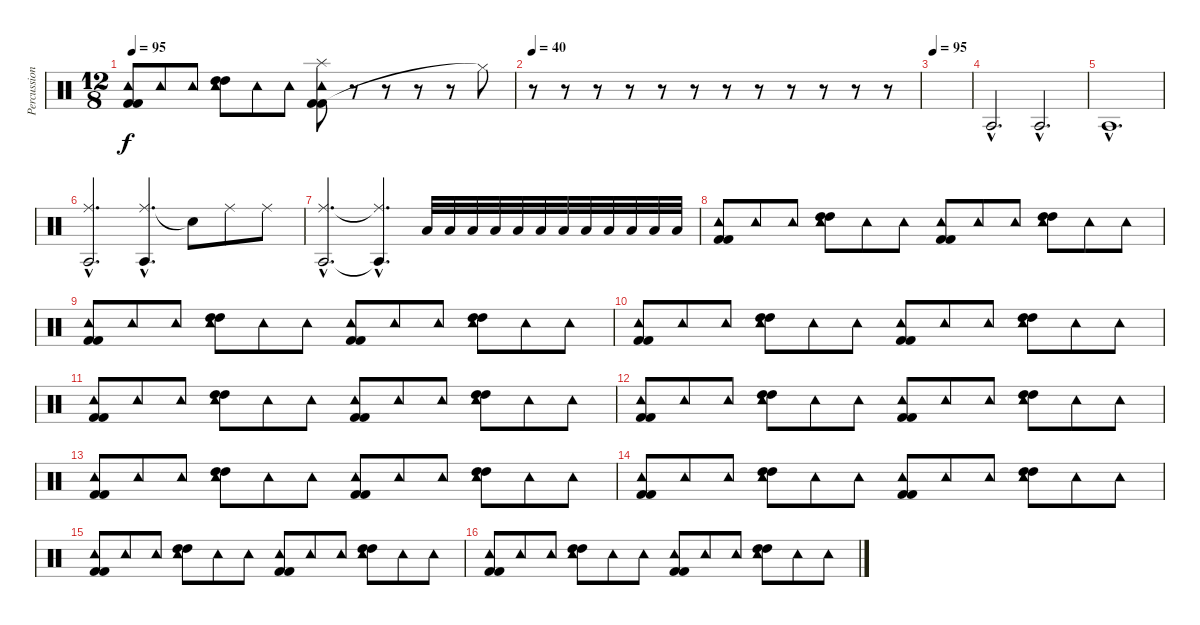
\track ("Percussion" "Percussion") {instrument percussion}
\staff {score}
\articulation defaults
\ts (12 8)
\tempo 95
\clef neutral
\ks c
("Kick (hit) 2" "Kick (hit) 2" "Tambourine (hit)").8{dy f} "Tambourine (hit)".8 "Tambourine (hit)".8 ("High Tom (hit)" "High Tom (hit)" "Tambourine (hit)").8 "Tambourine (hit)".8 "Tambourine (hit)".8 ("Kick (hit) 2" "Kick (hit) 2" "Splash (hit)" "Tambourine (hit)").8 r.8 r.8 r.8 r.8 "Hi-Hat (closed)"{t}.8 |
\tempo 40
r.8 r.8 r.8 r.8 r.8 r.8 r.8 r.8 r.8 r.8 r.8 r.8 |
\tempo 95
|
"Agogo tow (hit)"{hac}.2{d} "Agogo tow (hit)"{hac}.2{d} |
"Agogo tow (hit)"{hac}.1{d} |
("Ride (middle)"{hac} "Agogo tow (hit)"{hac}).2{d} ("Ride (middle)"{hac} "Agogo tow (hit)"{hac}).4{d} "Snare (hit)"{t}.8 "Ride (middle)".8 "Ride (middle)".8 |
("Ride (middle)"{hac} "Agogo tow (hit)"{hac}).2{d} ("Ride (middle)"{hac t} "Agogo tow (hit)"{hac t}).4{d volume 2} "Low Floor Tom (hit)".32{volume 16} "Low Floor Tom (hit)".32 "Low Floor Tom (hit)".32 "Low Floor Tom (hit)".32 "Low Floor Tom (hit)".32 "Low Floor Tom (hit)".32 "Low Floor Tom (hit)".32 "Low Floor Tom (hit)".32 "Low Floor Tom (hit)".32 "Low Floor Tom (hit)".32 "Low Floor Tom (hit)".32 "Low Floor Tom (hit)".32 |
("Kick (hit) 2" "Kick (hit) 2" "Tambourine (hit)").8 "Tambourine (hit)".8 "Tambourine (hit)".8 ("High Tom (hit)" "High Tom (hit)" "Tambourine (hit)").8 "Tambourine (hit)".8 "Tambourine (hit)".8 ("Kick (hit) 2" "Kick (hit) 2" "Tambourine (hit)").8 "Tambourine (hit)".8 "Tambourine (hit)".8 ("High Tom (hit)" "High Tom (hit)" "Tambourine (hit)").8 "Tambourine (hit)".8 "Tambourine (hit)".8 |
("Kick (hit) 2" "Kick (hit) 2" "Tambourine (hit)").8 "Tambourine (hit)".8 "Tambourine (hit)".8 ("High Tom (hit)" "High Tom (hit)" "Tambourine (hit)").8 "Tambourine (hit)".8 "Tambourine (hit)".8 ("Kick (hit) 2" "Kick (hit) 2" "Tambourine (hit)").8 "Tambourine (hit)".8 "Tambourine (hit)".8 ("High Tom (hit)" "High Tom (hit)" "Tambourine (hit)").8 "Tambourine (hit)".8 "Tambourine (hit)".8 |
("Kick (hit) 2" "Kick (hit) 2" "Tambourine (hit)").8 "Tambourine (hit)".8 "Tambourine (hit)".8 ("High Tom (hit)" "High Tom (hit)" "Tambourine (hit)").8 "Tambourine (hit)".8 "Tambourine (hit)".8 ("Kick (hit) 2" "Kick (hit) 2" "Tambourine (hit)").8 "Tambourine (hit)".8 "Tambourine (hit)".8 ("High Tom (hit)" "High Tom (hit)" "Tambourine (hit)").8 "Tambourine (hit)".8 "Tambourine (hit)".8 |
("Kick (hit) 2" "Kick (hit) 2" "Tambourine (hit)").8 "Tambourine (hit)".8 "Tambourine (hit)".8 ("High Tom (hit)" "High Tom (hit)" "Tambourine (hit)").8 "Tambourine (hit)".8 "Tambourine (hit)".8 ("Kick (hit) 2" "Kick (hit) 2" "Tambourine (hit)").8 "Tambourine (hit)".8 "Tambourine (hit)".8 ("High Tom (hit)" "High Tom (hit)" "Tambourine (hit)").8 "Tambourine (hit)".8 "Tambourine (hit)".8 |
("Kick (hit) 2" "Kick (hit) 2" "Tambourine (hit)").8 "Tambourine (hit)".8 "Tambourine (hit)".8 ("High Tom (hit)" "High Tom (hit)" "Tambourine (hit)").8 "Tambourine (hit)".8 "Tambourine (hit)".8 ("Kick (hit) 2" "Kick (hit) 2" "Tambourine (hit)").8 "Tambourine (hit)".8 "Tambourine (hit)".8 ("High Tom (hit)" "High Tom (hit)" "Tambourine (hit)").8 "Tambourine (hit)".8 "Tambourine (hit)".8 |
("Kick (hit) 2" "Kick (hit) 2" "Tambourine (hit)").8 "Tambourine (hit)".8 "Tambourine (hit)".8 ("High Tom (hit)" "High Tom (hit)" "Tambourine (hit)").8 "Tambourine (hit)".8 "Tambourine (hit)".8 ("Kick (hit) 2" "Kick (hit) 2" "Tambourine (hit)").8 "Tambourine (hit)".8 "Tambourine (hit)".8 ("High Tom (hit)" "High Tom (hit)" "Tambourine (hit)").8 "Tambourine (hit)".8 "Tambourine (hit)".8 |
("Kick (hit) 2" "Kick (hit) 2" "Tambourine (hit)").8 "Tambourine (hit)".8 "Tambourine (hit)".8 ("High Tom (hit)" "High Tom (hit)" "Tambourine (hit)").8 "Tambourine (hit)".8 "Tambourine (hit)".8 ("Kick (hit) 2" "Kick (hit) 2" "Tambourine (hit)").8 "Tambourine (hit)".8 "Tambourine (hit)".8 ("High Tom (hit)" "High Tom (hit)" "Tambourine (hit)").8 "Tambourine (hit)".8 "Tambourine (hit)".8 |
("Kick (hit) 2" "Kick (hit) 2" "Tambourine (hit)").8 "Tambourine (hit)".8 "Tambourine (hit)".8 ("High Tom (hit)" "High Tom (hit)" "Tambourine (hit)").8 "Tambourine (hit)".8 "Tambourine (hit)".8 ("Kick (hit) 2" "Kick (hit) 2" "Tambourine (hit)").8 "Tambourine (hit)".8 "Tambourine (hit)".8 ("High Tom (hit)" "High Tom (hit)" "Tambourine (hit)").8 "Tambourine (hit)".8 "Tambourine (hit)".8 |
("Kick (hit) 2" "Kick (hit) 2" "Tambourine (hit)").8 "Tambourine (hit)".8 "Tambourine (hit)".8 ("High Tom (hit)" "High Tom (hit)" "Tambourine (hit)").8 "Tambourine (hit)".8 "Tambourine (hit)".8 ("Kick (hit) 2" "Kick (hit) 2" "Tambourine (hit)").8 "Tambourine (hit)".8 "Tambourine (hit)".8 ("High Tom (hit)" "High Tom (hit)" "Tambourine (hit)").8 "Tambourine (hit)".8 "Tambourine (hit)".8
